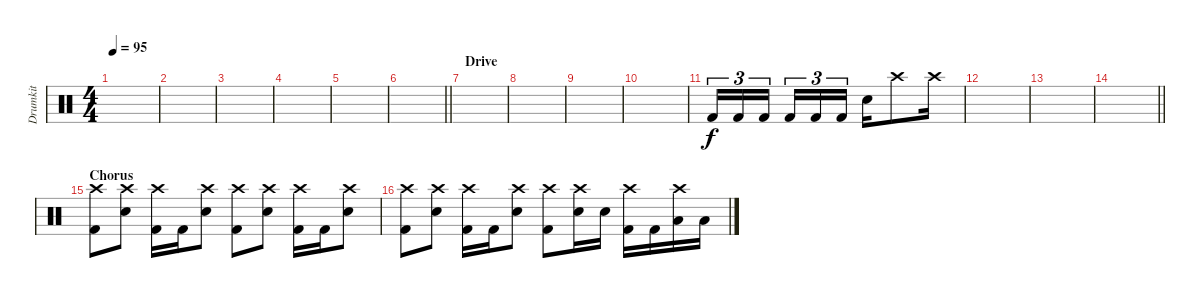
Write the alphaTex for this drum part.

\track ("Drumkit" "Drumkit") {instrument percussion}
\staff {score}
\articulation defaults
\ts (4 4)
\tempo 95
\clef neutral
\ks c
|
|
|
|
|
\barLineRight lightlight
|
\section ("" "Drive")
|
|
|
|
"Kick (hit) 2".16{tu (3 2)} "Kick (hit) 2".16{tu (3 2)} "Kick (hit) 2".16{tu (3 2) beam splitsecondary} "Kick (hit) 2".16{tu (3 2)} "Kick (hit) 2".16{tu (3 2)} "Kick (hit) 2".16{tu (3 2)} "Snare (hit) 2".16 "Crash high (hit)".8 "Crash high (hit)".16 |
|
|
\barLineRight lightlight
|
\section ("" "Chorus")
("Crash high (hit)" "Kick (hit) 2").8 ("Crash high (hit)" "Snare (hit) 2").8 ("Crash high (hit)" "Kick (hit) 2").16 "Kick (hit) 2".16 ("Crash high (hit)" "Snare (hit) 2").8 ("Crash high (hit)" "Kick (hit) 2").8 ("Crash high (hit)" "Snare (hit) 2").8 ("Crash high (hit)" "Kick (hit) 2").16 "Kick (hit) 2".16 ("Crash high (hit)" "Snare (hit) 2").8 |
("Crash high (hit)" "Kick (hit) 2").8 ("Crash high (hit)" "Snare (hit) 2").8 ("Crash high (hit)" "Kick (hit) 2").16 "Kick (hit) 2".16 ("Crash high (hit)" "Snare (hit) 2").8 ("Crash high (hit)" "Kick (hit) 2").8 ("Crash high (hit)" "Snare (hit) 2").16 "Snare (hit) 2".16 ("Crash high (hit)" "Kick (hit) 2").16 "Kick (hit) 2".16 ("Crash high (hit)" "Low Tom (hit)").16 "Low Tom (hit)".16
